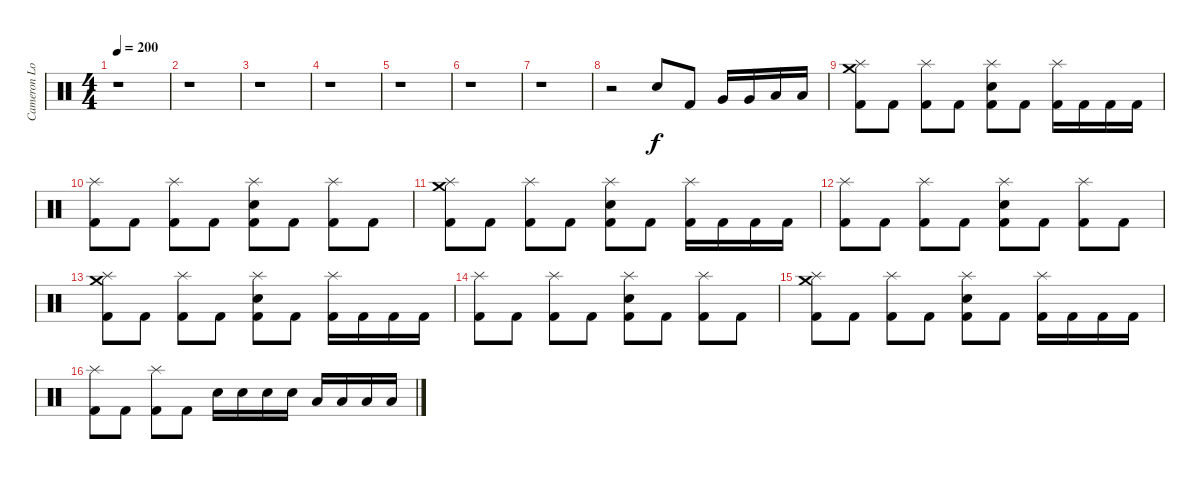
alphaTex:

\track ("Cameron Losch - drums" "Cameron Lo") {instrument percussion}
\staff {score}
\articulation defaults
\ts (4 4)
\tempo 200
\clef neutral
\ks c
r.1{dy f} |
r.1 |
r.1 |
r.1 |
r.1 |
r.1 |
r.1 |
r.2 "Electric Snare (hit)".8 "Kick (hit) 2".8 "Very Low Tom (hit)".16 "Very Low Tom (hit)".16 "Low Floor Tom (hit)".16 "Low Floor Tom (hit)".16 |
("Crash medium (hit)" "Splash (hit)" "Kick (hit) 2").8 "Kick (hit) 2".8 ("Splash (hit)" "Kick (hit) 2").8 "Kick (hit) 2".8 ("Splash (hit)" "Electric Snare (hit)" "Kick (hit) 2").8 "Kick (hit) 2".8 ("Splash (hit)" "Kick (hit) 2").16 "Kick (hit) 2".16 "Kick (hit) 2".16 "Kick (hit) 2".16 |
("Splash (hit)" "Kick (hit) 2").8 "Kick (hit) 2".8 ("Splash (hit)" "Kick (hit) 2").8 "Kick (hit) 2".8 ("Splash (hit)" "Electric Snare (hit)" "Kick (hit) 2").8 "Kick (hit) 2".8 ("Splash (hit)" "Kick (hit) 2").8 "Kick (hit) 2".8 |
("Crash medium (hit)" "Splash (hit)" "Kick (hit) 2").8 "Kick (hit) 2".8 ("Splash (hit)" "Kick (hit) 2").8 "Kick (hit) 2".8 ("Splash (hit)" "Electric Snare (hit)" "Kick (hit) 2").8 "Kick (hit) 2".8 ("Splash (hit)" "Kick (hit) 2").16 "Kick (hit) 2".16 "Kick (hit) 2".16 "Kick (hit) 2".16 |
("Splash (hit)" "Kick (hit) 2").8 "Kick (hit) 2".8 ("Splash (hit)" "Kick (hit) 2").8 "Kick (hit) 2".8 ("Splash (hit)" "Electric Snare (hit)" "Kick (hit) 2").8 "Kick (hit) 2".8 ("Splash (hit)" "Kick (hit) 2").8 "Kick (hit) 2".8 |
("Crash medium (hit)" "Splash (hit)" "Kick (hit) 2").8 "Kick (hit) 2".8 ("Splash (hit)" "Kick (hit) 2").8 "Kick (hit) 2".8 ("Splash (hit)" "Electric Snare (hit)" "Kick (hit) 2").8 "Kick (hit) 2".8 ("Splash (hit)" "Kick (hit) 2").16 "Kick (hit) 2".16 "Kick (hit) 2".16 "Kick (hit) 2".16 |
("Splash (hit)" "Kick (hit) 2").8 "Kick (hit) 2".8 ("Splash (hit)" "Kick (hit) 2").8 "Kick (hit) 2".8 ("Splash (hit)" "Electric Snare (hit)" "Kick (hit) 2").8 "Kick (hit) 2".8 ("Splash (hit)" "Kick (hit) 2").8 "Kick (hit) 2".8 |
("Crash medium (hit)" "Splash (hit)" "Kick (hit) 2").8 "Kick (hit) 2".8 ("Splash (hit)" "Kick (hit) 2").8 "Kick (hit) 2".8 ("Splash (hit)" "Electric Snare (hit)" "Kick (hit) 2").8 "Kick (hit) 2".8 ("Splash (hit)" "Kick (hit) 2").16 "Kick (hit) 2".16 "Kick (hit) 2".16 "Kick (hit) 2".16 |
("Splash (hit)" "Kick (hit) 2").8 "Kick (hit) 2".8 ("Splash (hit)" "Kick (hit) 2").8 "Kick (hit) 2".8 "Electric Snare (hit)".16 "Electric Snare (hit)".16 "Electric Snare (hit)".16 "Electric Snare (hit)".16 "Low Floor Tom (hit)".16 "Low Floor Tom (hit)".16 "Low Floor Tom (hit)".16 "Low Floor Tom (hit)".16
